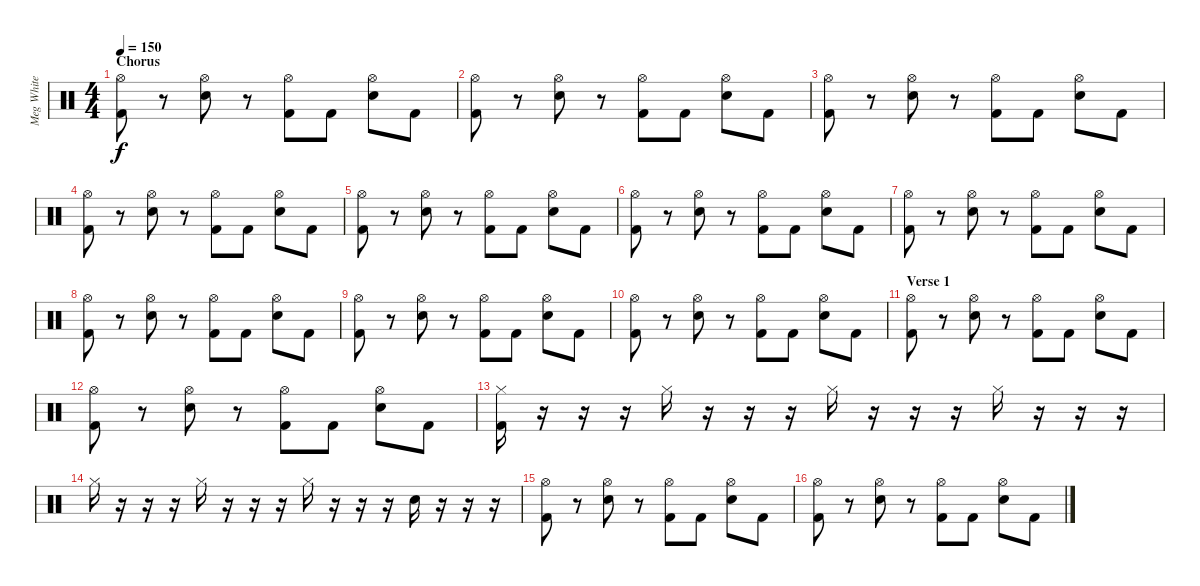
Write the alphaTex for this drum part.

\track ("Meg White - Drums" "Meg White ") {instrument percussion}
\staff {score}
\articulation defaults
\ts (4 4)
\section ("" "Chorus")
\tempo 150
\clef neutral
\ks c
("Hi-Hat (open)" "Kick (hit) 2").8{dy f} r.8 ("Hi-Hat (open)" "Electric Snare (hit)").8 r.8 ("Hi-Hat (open)" "Kick (hit) 2").8 "Kick (hit) 2".8 ("Hi-Hat (open)" "Electric Snare (hit)").8 "Kick (hit) 2".8 |
("Hi-Hat (open)" "Kick (hit) 2").8 r.8 ("Hi-Hat (open)" "Electric Snare (hit)").8 r.8 ("Hi-Hat (open)" "Kick (hit) 2").8 "Kick (hit) 2".8 ("Hi-Hat (open)" "Electric Snare (hit)").8 "Kick (hit) 2".8 |
("Hi-Hat (open)" "Kick (hit) 2").8 r.8 ("Hi-Hat (open)" "Electric Snare (hit)").8 r.8 ("Hi-Hat (open)" "Kick (hit) 2").8 "Kick (hit) 2".8 ("Hi-Hat (open)" "Electric Snare (hit)").8 "Kick (hit) 2".8 |
("Hi-Hat (open)" "Kick (hit) 2").8 r.8 ("Hi-Hat (open)" "Electric Snare (hit)").8 r.8 ("Hi-Hat (open)" "Kick (hit) 2").8 "Kick (hit) 2".8 ("Hi-Hat (open)" "Electric Snare (hit)").8 "Kick (hit) 2".8 |
("Hi-Hat (open)" "Kick (hit) 2").8 r.8 ("Hi-Hat (open)" "Electric Snare (hit)").8 r.8 ("Hi-Hat (open)" "Kick (hit) 2").8 "Kick (hit) 2".8 ("Hi-Hat (open)" "Electric Snare (hit)").8 "Kick (hit) 2".8 |
("Hi-Hat (open)" "Kick (hit) 2").8 r.8 ("Hi-Hat (open)" "Electric Snare (hit)").8 r.8 ("Hi-Hat (open)" "Kick (hit) 2").8 "Kick (hit) 2".8 ("Hi-Hat (open)" "Electric Snare (hit)").8 "Kick (hit) 2".8 |
("Hi-Hat (open)" "Kick (hit) 2").8 r.8 ("Hi-Hat (open)" "Electric Snare (hit)").8 r.8 ("Hi-Hat (open)" "Kick (hit) 2").8 "Kick (hit) 2".8 ("Hi-Hat (open)" "Electric Snare (hit)").8 "Kick (hit) 2".8 |
("Hi-Hat (open)" "Kick (hit) 2").8 r.8 ("Hi-Hat (open)" "Electric Snare (hit)").8 r.8 ("Hi-Hat (open)" "Kick (hit) 2").8 "Kick (hit) 2".8 ("Hi-Hat (open)" "Electric Snare (hit)").8 "Kick (hit) 2".8 |
("Hi-Hat (open)" "Kick (hit) 2").8 r.8 ("Hi-Hat (open)" "Electric Snare (hit)").8 r.8 ("Hi-Hat (open)" "Kick (hit) 2").8 "Kick (hit) 2".8 ("Hi-Hat (open)" "Electric Snare (hit)").8 "Kick (hit) 2".8 |
("Hi-Hat (open)" "Kick (hit) 2").8 r.8 ("Hi-Hat (open)" "Electric Snare (hit)").8 r.8 ("Hi-Hat (open)" "Kick (hit) 2").8 "Kick (hit) 2".8 ("Hi-Hat (open)" "Electric Snare (hit)").8 "Kick (hit) 2".8 |
\section ("" "Verse 1")
("Hi-Hat (open)" "Kick (hit) 2").8 r.8 ("Hi-Hat (open)" "Electric Snare (hit)").8 r.8 ("Hi-Hat (open)" "Kick (hit) 2").8 "Kick (hit) 2".8 ("Hi-Hat (open)" "Electric Snare (hit)").8 "Kick (hit) 2".8 |
("Hi-Hat (open)" "Kick (hit) 2").8 r.8 ("Hi-Hat (open)" "Electric Snare (hit)").8 r.8 ("Hi-Hat (open)" "Kick (hit) 2").8 "Kick (hit) 2".8 ("Hi-Hat (open)" "Electric Snare (hit)").8 "Kick (hit) 2".8 |
("Hi-Hat (closed)" "Kick (hit) 2").16 r.16 r.16 r.16 "Hi-Hat (closed)".16 r.16 r.16 r.16 "Hi-Hat (closed)".16 r.16 r.16 r.16 "Hi-Hat (closed)".16 r.16 r.16 r.16 |
"Hi-Hat (closed)".16 r.16 r.16 r.16 "Hi-Hat (closed)".16 r.16 r.16 r.16 "Hi-Hat (closed)".16 r.16 r.16 r.16 "Electric Snare (hit)".16 r.16 r.16 r.16 |
("Hi-Hat (open)" "Kick (hit) 2").8 r.8 ("Hi-Hat (open)" "Electric Snare (hit)").8 r.8 ("Hi-Hat (open)" "Kick (hit) 2").8 "Kick (hit) 2".8 ("Hi-Hat (open)" "Electric Snare (hit)").8 "Kick (hit) 2".8 |
("Hi-Hat (open)" "Kick (hit) 2").8 r.8 ("Hi-Hat (open)" "Electric Snare (hit)").8 r.8 ("Hi-Hat (open)" "Kick (hit) 2").8 "Kick (hit) 2".8 ("Hi-Hat (open)" "Electric Snare (hit)").8 "Kick (hit) 2".8
